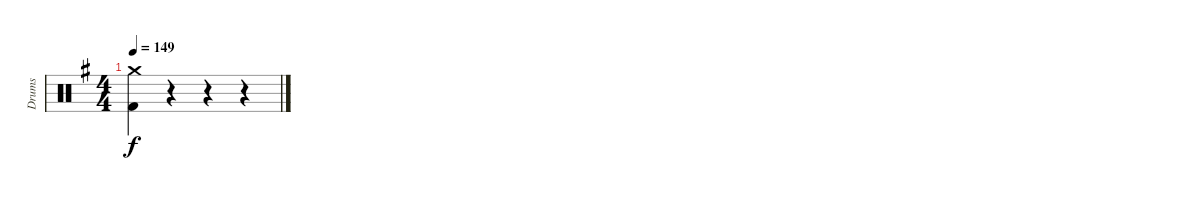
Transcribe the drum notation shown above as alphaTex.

\track ("Drums" "Drums") {instrument percussion}
\staff {score}
\articulation defaults
\ts (4 4)
\tempo 149
\clef neutral
\ks g
("Crash medium (hit)" "Kick (hit) 2").4{dy f} r.4 r.4 r.4
